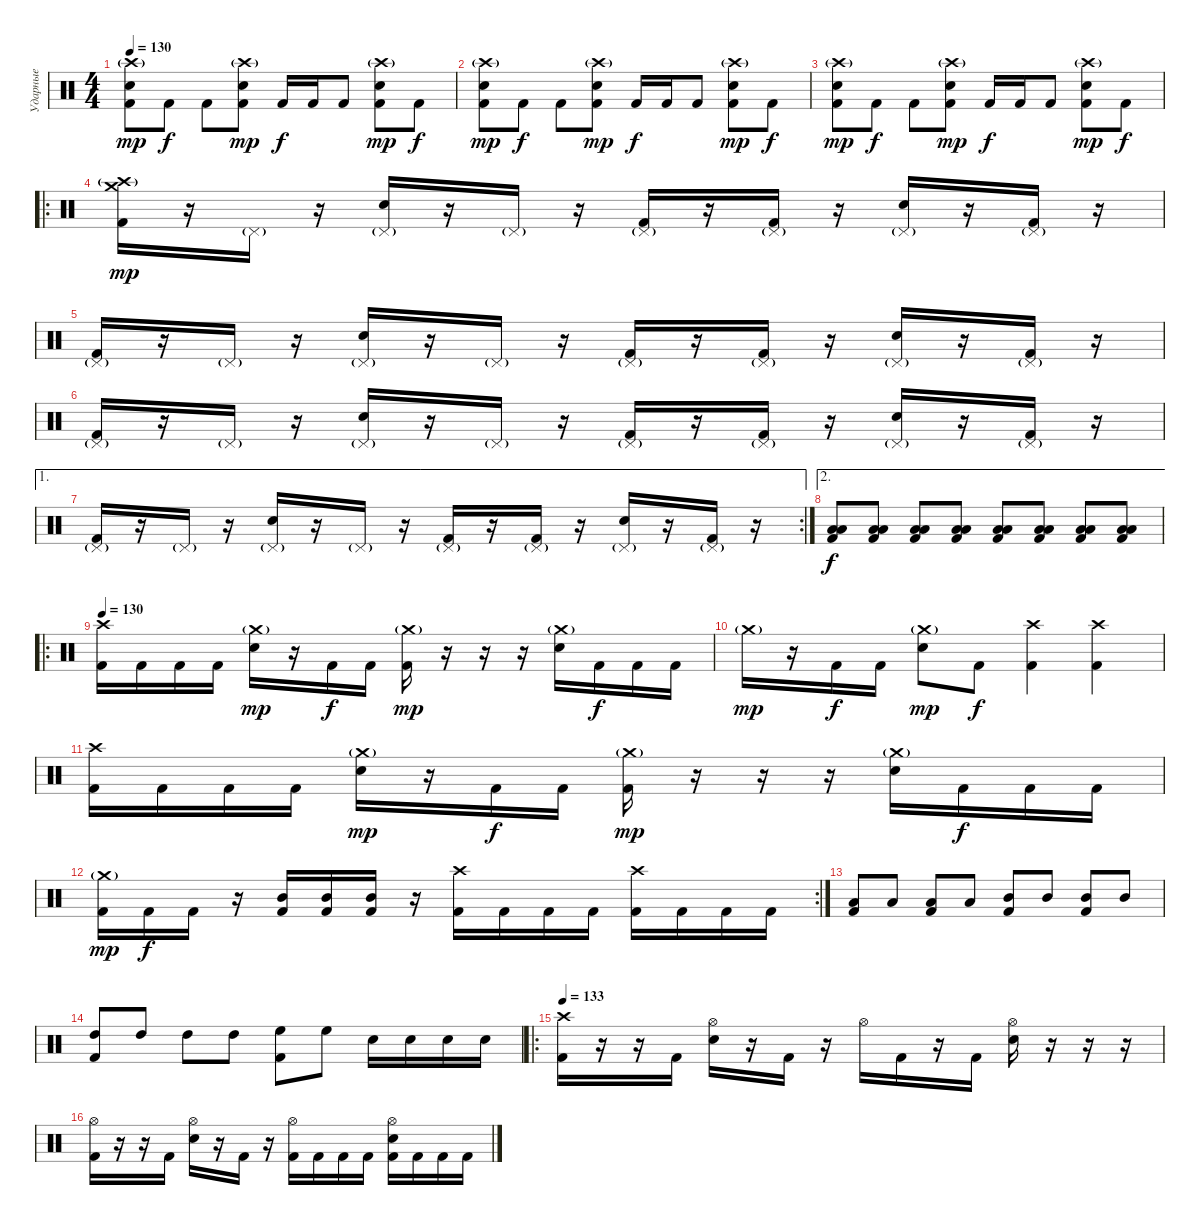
\track ("Ударные" "Ударные") {instrument percussion}
\staff {score}
\articulation defaults
\ts (4 4)
\tempo 130
\clef neutral
\ks c
("Crash high (hit)"{g} "Electric Snare (hit)" "Kick (hit) 2").8{dy mp} "Kick (hit) 2".8{dy f} "Kick (hit) 2".8 ("Crash high (hit)"{g} "Electric Snare (hit)" "Kick (hit) 2").8{dy mp} "Kick (hit) 2".16{dy f} "Kick (hit) 2".16 "Kick (hit) 2".8 ("Crash high (hit)"{g} "Electric Snare (hit)" "Kick (hit) 2").8{dy mp} "Kick (hit) 2".8{dy f} |
("Crash high (hit)"{g} "Electric Snare (hit)" "Kick (hit) 2").8{dy mp} "Kick (hit) 2".8{dy f} "Kick (hit) 2".8 ("Crash high (hit)"{g} "Electric Snare (hit)" "Kick (hit) 2").8{dy mp} "Kick (hit) 2".16{dy f} "Kick (hit) 2".16 "Kick (hit) 2".8 ("Crash high (hit)"{g} "Electric Snare (hit)" "Kick (hit) 2").8{dy mp} "Kick (hit) 2".8{dy f} |
("Crash high (hit)"{g} "Electric Snare (hit)" "Kick (hit) 2").8{dy mp} "Kick (hit) 2".8{dy f} "Kick (hit) 2".8 ("Crash high (hit)"{g} "Electric Snare (hit)" "Kick (hit) 2").8{dy mp} "Kick (hit) 2".16{dy f} "Kick (hit) 2".16 "Kick (hit) 2".8 ("Crash high (hit)"{g} "Electric Snare (hit)" "Kick (hit) 2").8{dy mp} "Kick (hit) 2".8{dy f} |
\ro
("Crash high (hit)"{g} "Crash medium (hit)" "Kick (hit) 2").16{dy mp} r.16 "Pedal Hi-Hat (hit)"{g}.16 r.16 ("Pedal Hi-Hat (hit)"{g} "Electric Snare (hit)").16 r.16 "Pedal Hi-Hat (hit)"{g}.16 r.16 ("Pedal Hi-Hat (hit)"{g} "Kick (hit) 2").16 r.16 ("Pedal Hi-Hat (hit)"{g} "Kick (hit) 2").16 r.16 ("Pedal Hi-Hat (hit)"{g} "Electric Snare (hit)").16 r.16 ("Pedal Hi-Hat (hit)"{g} "Kick (hit) 2").16 r.16 |
("Pedal Hi-Hat (hit)"{g} "Kick (hit) 2").16 r.16 "Pedal Hi-Hat (hit)"{g}.16 r.16 ("Pedal Hi-Hat (hit)"{g} "Electric Snare (hit)").16 r.16 "Pedal Hi-Hat (hit)"{g}.16 r.16 ("Pedal Hi-Hat (hit)"{g} "Kick (hit) 2").16 r.16 ("Pedal Hi-Hat (hit)"{g} "Kick (hit) 2").16 r.16 ("Pedal Hi-Hat (hit)"{g} "Electric Snare (hit)").16 r.16 ("Pedal Hi-Hat (hit)"{g} "Kick (hit) 2").16 r.16 |
("Pedal Hi-Hat (hit)"{g} "Kick (hit) 2").16 r.16 "Pedal Hi-Hat (hit)"{g}.16 r.16 ("Pedal Hi-Hat (hit)"{g} "Electric Snare (hit)").16 r.16 "Pedal Hi-Hat (hit)"{g}.16 r.16 ("Pedal Hi-Hat (hit)"{g} "Kick (hit) 2").16 r.16 ("Pedal Hi-Hat (hit)"{g} "Kick (hit) 2").16 r.16 ("Pedal Hi-Hat (hit)"{g} "Electric Snare (hit)").16 r.16 ("Pedal Hi-Hat (hit)"{g} "Kick (hit) 2").16 r.16 |
\ae 1
\rc 2
("Pedal Hi-Hat (hit)"{g} "Kick (hit) 2").16 r.16 "Pedal Hi-Hat (hit)"{g}.16 r.16 ("Pedal Hi-Hat (hit)"{g} "Electric Snare (hit)").16 r.16 "Pedal Hi-Hat (hit)"{g}.16 r.16 ("Pedal Hi-Hat (hit)"{g} "Kick (hit) 2").16 r.16 ("Pedal Hi-Hat (hit)"{g} "Kick (hit) 2").16 r.16 ("Pedal Hi-Hat (hit)"{g} "Electric Snare (hit)").16 r.16 ("Pedal Hi-Hat (hit)"{g} "Kick (hit) 2").16 r.16 |
\ae 2
("Low Floor Tom (hit)" "Low Tom (hit)" "Kick (hit) 2").8{dy f} ("Low Floor Tom (hit)" "Low Tom (hit)" "Kick (hit) 2").8 ("Low Floor Tom (hit)" "Low Tom (hit)" "Kick (hit) 2").8 ("Low Floor Tom (hit)" "Low Tom (hit)" "Kick (hit) 2").8 ("Low Floor Tom (hit)" "Low Tom (hit)" "Kick (hit) 2").8 ("Low Floor Tom (hit)" "Low Tom (hit)" "Kick (hit) 2").8 ("Low Floor Tom (hit)" "Low Tom (hit)" "Kick (hit) 2").8 ("Low Floor Tom (hit)" "Low Tom (hit)" "Kick (hit) 2").8 |
\ro
\tempo 130
("Crash high (hit)" "Kick (hit) 2").16 "Kick (hit) 2".16 "Kick (hit) 2".16 "Kick (hit) 2".16 ("Crash medium (hit)"{g} "Electric Snare (hit)").16{dy mp} r.16 "Kick (hit) 2".16{dy f} "Kick (hit) 2".16 ("Crash medium (hit)"{g} "Kick (hit) 2").16{dy mp} r.16 r.16 r.16 ("Crash medium (hit)"{g} "Electric Snare (hit)").16 "Kick (hit) 2".16{dy f} "Kick (hit) 2".16 "Kick (hit) 2".16 |
"Crash medium (hit)"{g}.16{dy mp} r.16 "Kick (hit) 2".16{dy f} "Kick (hit) 2".16 ("Crash medium (hit)"{g} "Electric Snare (hit)").8{dy mp} "Kick (hit) 2".8{dy f} ("Crash high (hit)" "Kick (hit) 2").4 ("Crash high (hit)" "Kick (hit) 2").4 |
("Crash high (hit)" "Kick (hit) 2").16 "Kick (hit) 2".16 "Kick (hit) 2".16 "Kick (hit) 2".16 ("Crash medium (hit)"{g} "Electric Snare (hit)").16{dy mp} r.16 "Kick (hit) 2".16{dy f} "Kick (hit) 2".16 ("Crash medium (hit)"{g} "Kick (hit) 2").16{dy mp} r.16 r.16 r.16 ("Crash medium (hit)"{g} "Electric Snare (hit)").16 "Kick (hit) 2".16{dy f} "Kick (hit) 2".16 "Kick (hit) 2".16 |
\rc 2
("Crash medium (hit)"{g} "Kick (hit) 2").16{dy mp} "Kick (hit) 2".16{dy f} "Kick (hit) 2".16 r.16 ("Mid Tom (hit)" "Kick (hit) 2").16 ("Mid Tom (hit)" "Kick (hit) 2").16 ("Mid Tom (hit)" "Kick (hit) 2").16 r.16 ("Crash high (hit)" "Kick (hit) 2").16 "Kick (hit) 2".16 "Kick (hit) 2".16 "Kick (hit) 2".16 ("Crash high (hit)" "Kick (hit) 2").16 "Kick (hit) 2".16 "Kick (hit) 2".16 "Kick (hit) 2".16 |
("Kick (hit) 2" "Low Tom (hit)").8 "Low Tom (hit)".8 ("Kick (hit) 2" "Low Tom (hit)").8 "Low Tom (hit)".8 ("Kick (hit) 2" "Mid Tom (hit)").8 "Mid Tom (hit)".8 ("Kick (hit) 2" "Mid Tom (hit)").8 "Mid Tom (hit)".8 |
("Kick (hit) 2" "High Tom (hit)").8 "High Tom (hit)".8 "High Tom (hit)".8 "High Tom (hit)".8 ("Kick (hit) 2" "High Floor Tom (hit)").8 "High Floor Tom (hit)".8 "Electric Snare (hit)".16 "Electric Snare (hit)".16 "Electric Snare (hit)".16 "Electric Snare (hit)".16 |
\ro
\tempo 133
("Crash high (hit)" "Kick (hit) 2").16 r.16 r.16 "Kick (hit) 2".16 ("Hi-Hat (open)" "Electric Snare (hit)").16 r.16 "Kick (hit) 2".16 r.16 "Hi-Hat (open)".16 "Kick (hit) 2".16 r.16 "Kick (hit) 2".16 ("Hi-Hat (open)" "Electric Snare (hit)").16 r.16 r.16 r.16 |
("Hi-Hat (open)" "Kick (hit) 2").16 r.16 r.16 "Kick (hit) 2".16 ("Hi-Hat (open)" "Electric Snare (hit)").16 r.16 "Kick (hit) 2".16 r.16 ("Hi-Hat (open)" "Kick (hit) 2").16 "Kick (hit) 2".16 "Kick (hit) 2".16 "Kick (hit) 2".16 ("Hi-Hat (open)" "Electric Snare (hit)" "Kick (hit) 2").16 "Kick (hit) 2".16 "Kick (hit) 2".16 "Kick (hit) 2".16
